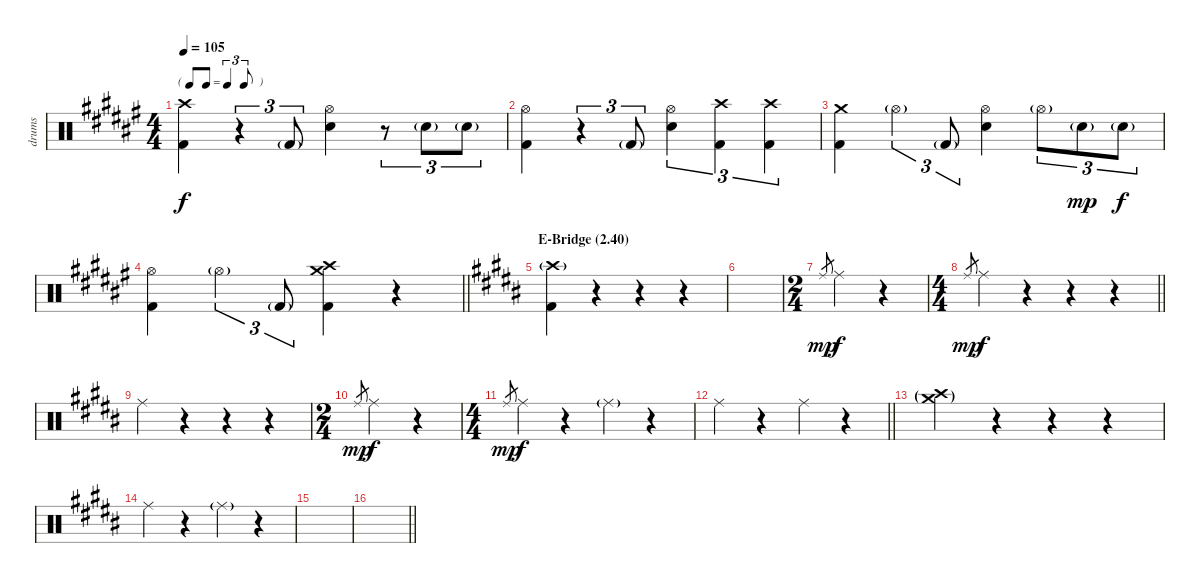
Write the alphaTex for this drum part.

\track ("drums" "drums") {instrument percussion}
\staff {score}
\articulation defaults
\ts (4 4)
\tf triplet8th
\tempo 105
\clef neutral
\ks d#minor
("Crash high (hit)" "Kick (hit) 2").4{dy f} r.4{tu (3 2)} "Kick (hit) 2"{g}.8{tu (3 2)} ("Hi-Hat (open)" "Electric Snare (hit)").4 r.8{tu (3 2)} "Electric Snare (hit)"{g}.8{tu (3 2)} "Electric Snare (hit)"{g}.8{tu (3 2)} |
("Hi-Hat (open)" "Kick (hit) 2").4 r.4{tu (3 2)} "Kick (hit) 2"{g}.8{tu (3 2)} ("Hi-Hat (open)" "Electric Snare (hit)").4{tu (3 2)} ("Crash high (hit)" "Kick (hit) 2").4{tu (3 2)} ("Crash high (hit)" "Kick (hit) 2").4{tu (3 2)} |
("Crash medium (hit)" "Kick (hit) 2").4 "Hi-Hat (open)"{g}.4{tu (3 2)} "Kick (hit) 2"{g}.8{tu (3 2)} ("Hi-Hat (open)" "Electric Snare (hit)").4 "Hi-Hat (open)"{g}.8{tu (3 2)} "Electric Snare (hit)"{g}.8{tu (3 2) dy mp} "Electric Snare (hit)"{g}.8{tu (3 2) dy f} |
\barLineRight lightlight
("Hi-Hat (open)" "Kick (hit) 2").4 "Hi-Hat (open)"{g}.4{tu (3 2)} "Kick (hit) 2"{g}.8{tu (3 2)} ("Crash high (hit)" "Crash medium (hit)" "Kick (hit) 2").4 r.4 |
\section ("" "E-Bridge (2.40)")
\ks b
("Crash high (hit)"{g} "Kick (hit) 2").4 r.4 r.4 r.4 |
|
\ts (2 4)
"Ride (middle)".8{gr dy mp} "Ride (middle)".4{dy f} r.4 |
\ts (4 4)
\barLineRight lightlight "Ride (middle)".8{gr dy mp} "Ride (middle)".4{dy f}
r.4 r.4 r.4 |
"Ride (middle)".4 r.4 r.4 r.4 |
\ts (2 4)
"Ride (middle)".8{gr dy mp} "Ride (middle)".4{dy f} r.4 |
\ts (4 4)
"Ride (middle)".8{gr dy mp} "Ride (middle)".4{dy f} r.4 "Ride (middle)"{g}.4 r.4 |
\barLineRight lightlight "Ride (middle)".4
r.4 "Ride (middle)".4 r.4 |
("Crash high (hit)"{g} "Crash medium (hit)"{g}).4 r.4 r.4 r.4 |
"Ride (middle)".4 r.4 "Ride (middle)"{g}.4 r.4 |
|
\barLineRight lightlight
